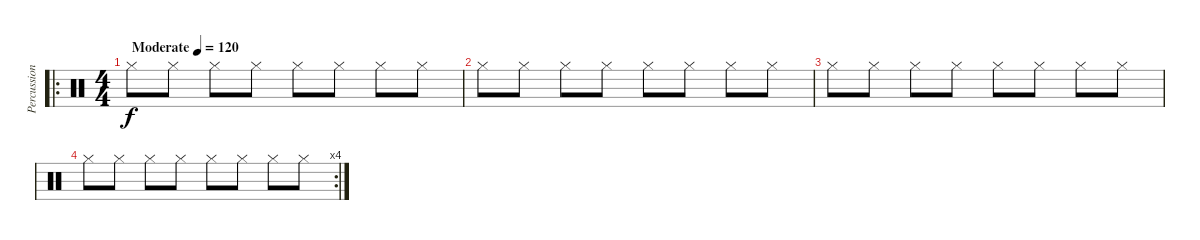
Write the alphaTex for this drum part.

\track ("Percussion" "Percussion") {instrument percussion}
\staff {score}
\articulation defaults
\ro
\ts (4 4)
\tempo (120 "Moderate")
\clef neutral
\ks c "Hi-Hat (closed)".8{dy f} "Hi-Hat (closed)".8 "Hi-Hat (closed)".8 "Hi-Hat (closed)".8 "Hi-Hat (closed)".8 "Hi-Hat (closed)".8 "Hi-Hat (closed)".8 "Hi-Hat (closed)".8
|
"Hi-Hat (closed)".8 "Hi-Hat (closed)".8 "Hi-Hat (closed)".8 "Hi-Hat (closed)".8 "Hi-Hat (closed)".8 "Hi-Hat (closed)".8 "Hi-Hat (closed)".8 "Hi-Hat (closed)".8 |
"Hi-Hat (closed)".8 "Hi-Hat (closed)".8 "Hi-Hat (closed)".8 "Hi-Hat (closed)".8 "Hi-Hat (closed)".8 "Hi-Hat (closed)".8 "Hi-Hat (closed)".8 "Hi-Hat (closed)".8 |
\rc 4 "Hi-Hat (closed)".8 "Hi-Hat (closed)".8 "Hi-Hat (closed)".8 "Hi-Hat (closed)".8 "Hi-Hat (closed)".8 "Hi-Hat (closed)".8 "Hi-Hat (closed)".8 "Hi-Hat (closed)".8
